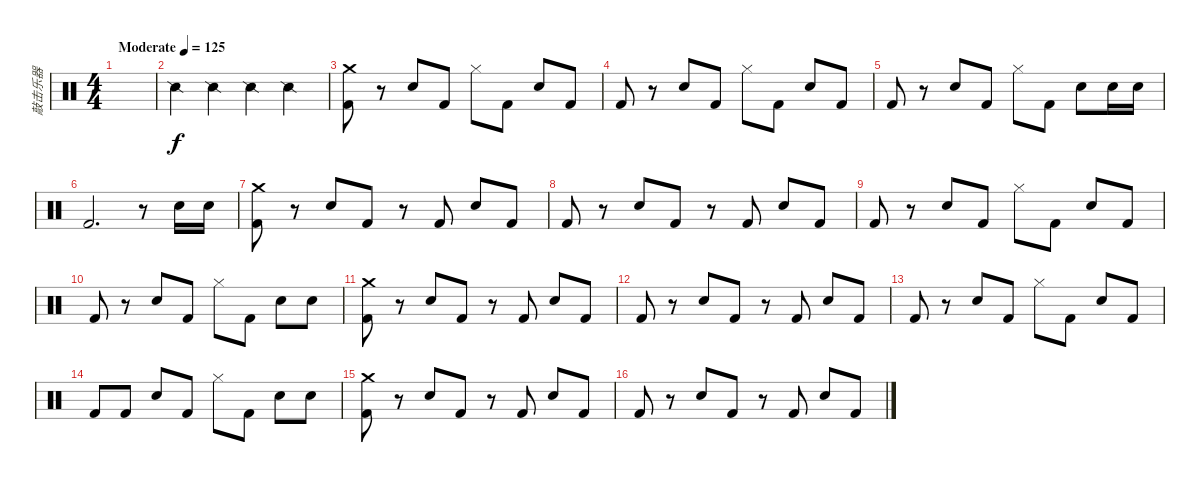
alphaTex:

\track ("敲击乐器" "敲击乐器") {instrument percussion}
\staff {score}
\articulation defaults
\ts (4 4)
\tempo (125 "Moderate")
\clef neutral
\ks c
|
"Snare (side stick) 2".4 "Snare (side stick) 2".4 "Snare (side stick) 2".4 "Snare (side stick) 2".4 |
("Kick (hit) 2" "Crash medium (hit)").8 r.8 "Electric Snare (hit)".8 "Kick (hit) 2".8 "Hi-Hat (closed)".8 "Kick (hit) 2".8 "Electric Snare (hit)".8 "Kick (hit) 2".8 |
"Kick (hit) 2".8 r.8 "Electric Snare (hit)".8 "Kick (hit) 2".8 "Hi-Hat (closed)".8 "Kick (hit) 2".8 "Electric Snare (hit)".8 "Kick (hit) 2".8 |
"Kick (hit) 2".8 r.8 "Electric Snare (hit)".8 "Kick (hit) 2".8 "Hi-Hat (closed)".8 "Kick (hit) 2".8 "Electric Snare (hit)".8 "Electric Snare (hit)".16 "Electric Snare (hit)".16 |
"Kick (hit) 2".2{d} r.8 "Electric Snare (hit)".16 "Electric Snare (hit)".16 |
("Kick (hit) 2" "Crash medium (hit)").8 r.8 "Electric Snare (hit)".8 "Kick (hit) 2".8 r.8 "Kick (hit) 2".8 "Electric Snare (hit)".8 "Kick (hit) 2".8 |
"Kick (hit) 2".8 r.8 "Electric Snare (hit)".8 "Kick (hit) 2".8 r.8 "Kick (hit) 2".8 "Electric Snare (hit)".8 "Kick (hit) 2".8 |
"Kick (hit) 2".8 r.8 "Electric Snare (hit)".8 "Kick (hit) 2".8 "Hi-Hat (closed)".8 "Kick (hit) 2".8 "Electric Snare (hit)".8 "Kick (hit) 2".8 |
"Kick (hit) 2".8 r.8 "Electric Snare (hit)".8 "Kick (hit) 2".8 "Hi-Hat (closed)".8 "Kick (hit) 2".8 "Electric Snare (hit)".8 "Electric Snare (hit)".8 |
("Kick (hit) 2" "Crash medium (hit)").8 r.8 "Electric Snare (hit)".8 "Kick (hit) 2".8 r.8 "Kick (hit) 2".8 "Electric Snare (hit)".8 "Kick (hit) 2".8 |
"Kick (hit) 2".8 r.8 "Electric Snare (hit)".8 "Kick (hit) 2".8 r.8 "Kick (hit) 2".8 "Electric Snare (hit)".8 "Kick (hit) 2".8 |
"Kick (hit) 2".8 r.8 "Electric Snare (hit)".8 "Kick (hit) 2".8 "Hi-Hat (closed)".8 "Kick (hit) 2".8 "Electric Snare (hit)".8 "Kick (hit) 2".8 |
"Kick (hit) 2".8 "Kick (hit) 2".8 "Electric Snare (hit)".8 "Kick (hit) 2".8 "Hi-Hat (closed)".8 "Kick (hit) 2".8 "Electric Snare (hit)".8 "Electric Snare (hit)".8 |
("Kick (hit) 2" "Crash medium (hit)").8 r.8 "Electric Snare (hit)".8 "Kick (hit) 2".8 r.8 "Kick (hit) 2".8 "Electric Snare (hit)".8 "Kick (hit) 2".8 |
"Kick (hit) 2".8 r.8 "Electric Snare (hit)".8 "Kick (hit) 2".8 r.8 "Kick (hit) 2".8 "Electric Snare (hit)".8 "Kick (hit) 2".8
